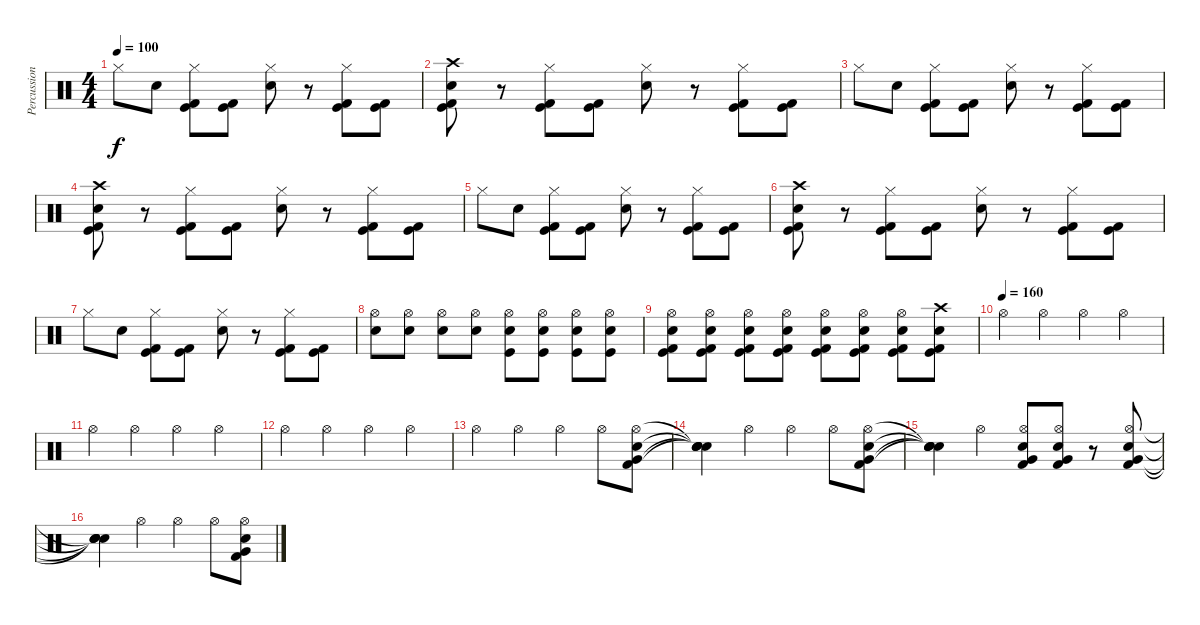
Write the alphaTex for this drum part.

\track ("Percussions" "Percussion") {instrument percussion}
\staff {score}
\articulation defaults
\ts (4 4)
\tempo 100
\clef neutral
\ks c "Hi-Hat (closed)".8{dy f} "Snare (hit) 2".8
("Kick (hit)" "Kick (hit) 2" "Hi-Hat (closed)").8 ("Kick (hit)" "Kick (hit) 2").8 ("Snare (hit) 2" "Hi-Hat (closed)").8 r.8 ("Kick (hit)" "Kick (hit) 2" "Hi-Hat (closed)").8 ("Kick (hit)" "Kick (hit) 2").8 |
("Snare (hit) 2" "Kick (hit)" "Kick (hit) 2" "Crash high (hit)").8 r.8 ("Kick (hit)" "Kick (hit) 2" "Hi-Hat (closed)").8 ("Kick (hit)" "Kick (hit) 2").8 ("Snare (hit) 2" "Hi-Hat (closed)").8 r.8 ("Kick (hit)" "Kick (hit) 2" "Hi-Hat (closed)").8 ("Kick (hit)" "Kick (hit) 2").8 |
"Hi-Hat (closed)".8 "Snare (hit) 2".8 ("Kick (hit)" "Kick (hit) 2" "Hi-Hat (closed)").8 ("Kick (hit)" "Kick (hit) 2").8 ("Snare (hit) 2" "Hi-Hat (closed)").8 r.8 ("Kick (hit)" "Kick (hit) 2" "Hi-Hat (closed)").8 ("Kick (hit)" "Kick (hit) 2").8 |
("Snare (hit) 2" "Kick (hit)" "Kick (hit) 2" "Crash high (hit)").8 r.8 ("Kick (hit)" "Kick (hit) 2" "Hi-Hat (closed)").8 ("Kick (hit)" "Kick (hit) 2").8 ("Snare (hit) 2" "Hi-Hat (closed)").8 r.8 ("Kick (hit)" "Kick (hit) 2" "Hi-Hat (closed)").8 ("Kick (hit)" "Kick (hit) 2").8 |
"Hi-Hat (closed)".8 "Snare (hit) 2".8 ("Kick (hit)" "Kick (hit) 2" "Hi-Hat (closed)").8 ("Kick (hit)" "Kick (hit) 2").8 ("Snare (hit) 2" "Hi-Hat (closed)").8 r.8 ("Kick (hit)" "Kick (hit) 2" "Hi-Hat (closed)").8 ("Kick (hit)" "Kick (hit) 2").8 |
("Snare (hit) 2" "Kick (hit)" "Kick (hit) 2" "Crash high (hit)").8 r.8 ("Kick (hit)" "Kick (hit) 2" "Hi-Hat (closed)").8 ("Kick (hit)" "Kick (hit) 2").8 ("Snare (hit) 2" "Hi-Hat (closed)").8 r.8 ("Kick (hit)" "Kick (hit) 2" "Hi-Hat (closed)").8 ("Kick (hit)" "Kick (hit) 2").8 |
"Hi-Hat (closed)".8 "Snare (hit) 2".8 ("Kick (hit)" "Kick (hit) 2" "Hi-Hat (closed)").8 ("Kick (hit)" "Kick (hit) 2").8 ("Snare (hit) 2" "Hi-Hat (closed)").8 r.8 ("Kick (hit)" "Kick (hit) 2" "Hi-Hat (closed)").8 ("Kick (hit)" "Kick (hit) 2").8 |
("Snare (hit) 2" "Hi-Hat (open)").8 ("Snare (hit) 2" "Hi-Hat (open)").8 ("Snare (hit) 2" "Hi-Hat (open)").8 ("Snare (hit) 2" "Hi-Hat (open)").8 ("Snare (hit) 2" "Kick (hit)" "Hi-Hat (open)").8 ("Snare (hit) 2" "Kick (hit)" "Hi-Hat (open)").8 ("Snare (hit) 2" "Kick (hit)" "Hi-Hat (open)").8 ("Snare (hit) 2" "Kick (hit)" "Hi-Hat (open)").8 |
("Snare (hit) 2" "Kick (hit)" "Kick (hit) 2" "Hi-Hat (open)").8 ("Snare (hit) 2" "Kick (hit)" "Kick (hit) 2" "Hi-Hat (open)").8 ("Snare (hit) 2" "Kick (hit)" "Kick (hit) 2" "Hi-Hat (open)").8 ("Snare (hit) 2" "Kick (hit)" "Kick (hit) 2" "Hi-Hat (open)").8 ("Snare (hit) 2" "Kick (hit)" "Kick (hit) 2" "Hi-Hat (open)").8 ("Snare (hit) 2" "Kick (hit)" "Kick (hit) 2" "Hi-Hat (open)").8 ("Snare (hit) 2" "Kick (hit)" "Kick (hit) 2" "Hi-Hat (open)").8 ("Snare (hit) 2" "Kick (hit)" "Kick (hit) 2" "Crash high (hit)").8 |
\tempo (160)
"Hi-Hat (open)".4 "Hi-Hat (open)".4 "Hi-Hat (open)".4 "Hi-Hat (open)".4 |
"Hi-Hat (open)".4 "Hi-Hat (open)".4 "Hi-Hat (open)".4 "Hi-Hat (open)".4 |
"Hi-Hat (open)".4 "Hi-Hat (open)".4 "Hi-Hat (open)".4 "Hi-Hat (open)".4 |
"Hi-Hat (open)".4 "Hi-Hat (open)".4 "Hi-Hat (open)".4 "Hi-Hat (open)".8 ("Hi-Hat (open)" "Snare (hit) 2" "Very Low Tom (hit)" "Kick (hit) 2").8 |
("Snare (hit)"{t} "Snare (hit)"{t} "Snare (hit)"{t} "Snare (hit)"{t}).4 "Hi-Hat (open)".4 "Hi-Hat (open)".4 "Hi-Hat (open)".8 ("Hi-Hat (open)" "Snare (hit) 2" "Very Low Tom (hit)" "Kick (hit) 2").8 |
("Snare (hit)"{t} "Snare (hit)"{t} "Snare (hit)"{t} "Snare (hit)"{t}).4 "Hi-Hat (open)".4 ("Hi-Hat (open)" "Snare (hit) 2" "Very Low Tom (hit)" "Kick (hit) 2").8 ("Hi-Hat (open)" "Snare (hit) 2" "Very Low Tom (hit)" "Kick (hit) 2").8 r.8 ("Hi-Hat (open)" "Snare (hit) 2" "Very Low Tom (hit)" "Kick (hit) 2").8 |
("Snare (hit)"{t} "Snare (hit)"{t} "Snare (hit)"{t} "Snare (hit)"{t}).4 "Hi-Hat (open)".4 "Hi-Hat (open)".4 "Hi-Hat (open)".8 ("Hi-Hat (open)" "Snare (hit) 2" "Very Low Tom (hit)" "Kick (hit) 2").8
